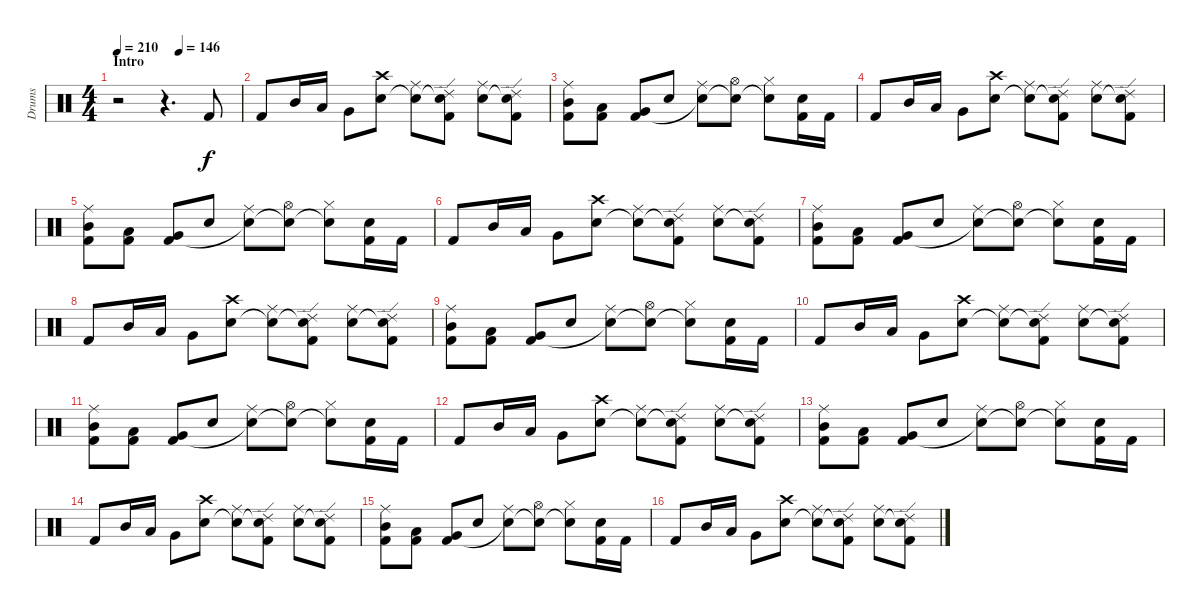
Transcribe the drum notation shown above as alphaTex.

\track ("Drums" "Drums") {instrument percussion}
\staff {score}
\articulation defaults
\ts (4 4)
\section ("" "Intro")
\tempo 210
\tempo (146 0.5)
\tempo 210
\clef neutral
\ks c
r.2{dy f} r.4{d} "Kick (hit) 2".8 |
"Kick (hit) 2".8 "Mid Tom (hit)".16 "Low Tom (hit)".16 "Very Low Tom (hit)".8 ("Crash high (hit)" "Snare (hit) 2").8 ("Ride (middle)" "Snare (hit)"{t}).8 ("Ride (edge) 2" "Snare (hit)"{t} "Kick (hit) 2").8 ("Ride (middle)" "Snare (hit) 2").8 ("Ride (edge) 2" "Snare (hit)"{t} "Kick (hit) 2").8 |
("Ride (middle)" "Mid Tom (hit)" "Kick (hit) 2").8 ("Low Tom (hit)" "Kick (hit) 2").8 ("Very Low Tom (hit)" "Kick (hit) 2").8 "Snare (hit) 2".8 ("Ride (middle)" "Snare (hit)"{t}).8 ("Hi-Hat (open)" "Snare (hit)"{t}).8 ("Hi-Hat (closed)" "Snare (hit)"{t}).8 ("Snare (hit) 2" "Kick (hit) 2").16 "Kick (hit) 2".16 |
"Kick (hit) 2".8 "Mid Tom (hit)".16 "Low Tom (hit)".16 "Very Low Tom (hit)".8 ("Crash high (hit)" "Snare (hit) 2").8 ("Ride (middle)" "Snare (hit)"{t}).8 ("Ride (edge) 2" "Snare (hit)"{t} "Kick (hit) 2").8 ("Ride (middle)" "Snare (hit) 2").8 ("Ride (edge) 2" "Snare (hit)"{t} "Kick (hit) 2").8 |
("Ride (middle)" "Mid Tom (hit)" "Kick (hit) 2").8 ("Low Tom (hit)" "Kick (hit) 2").8 ("Very Low Tom (hit)" "Kick (hit) 2").8 "Snare (hit) 2".8 ("Ride (middle)" "Snare (hit)"{t}).8 ("Hi-Hat (open)" "Snare (hit)"{t}).8 ("Hi-Hat (closed)" "Snare (hit)"{t}).8 ("Snare (hit) 2" "Kick (hit) 2").16 "Kick (hit) 2".16 |
"Kick (hit) 2".8 "Mid Tom (hit)".16 "Low Tom (hit)".16 "Very Low Tom (hit)".8 ("Crash high (hit)" "Snare (hit) 2").8 ("Ride (middle)" "Snare (hit)"{t}).8 ("Ride (edge) 2" "Snare (hit)"{t} "Kick (hit) 2").8 ("Ride (middle)" "Snare (hit) 2").8 ("Ride (edge) 2" "Snare (hit)"{t} "Kick (hit) 2").8 |
("Ride (middle)" "Mid Tom (hit)" "Kick (hit) 2").8 ("Low Tom (hit)" "Kick (hit) 2").8 ("Very Low Tom (hit)" "Kick (hit) 2").8 "Snare (hit) 2".8 ("Ride (middle)" "Snare (hit)"{t}).8 ("Hi-Hat (open)" "Snare (hit)"{t}).8 ("Hi-Hat (closed)" "Snare (hit)"{t}).8 ("Snare (hit) 2" "Kick (hit) 2").16 "Kick (hit) 2".16 |
"Kick (hit) 2".8 "Mid Tom (hit)".16 "Low Tom (hit)".16 "Very Low Tom (hit)".8 ("Crash high (hit)" "Snare (hit) 2").8 ("Ride (middle)" "Snare (hit)"{t}).8 ("Ride (edge) 2" "Snare (hit)"{t} "Kick (hit) 2").8 ("Ride (middle)" "Snare (hit) 2").8 ("Ride (edge) 2" "Snare (hit)"{t} "Kick (hit) 2").8 |
("Ride (middle)" "Mid Tom (hit)" "Kick (hit) 2").8 ("Low Tom (hit)" "Kick (hit) 2").8 ("Very Low Tom (hit)" "Kick (hit) 2").8 "Snare (hit) 2".8 ("Ride (middle)" "Snare (hit)"{t}).8 ("Hi-Hat (open)" "Snare (hit)"{t}).8 ("Hi-Hat (closed)" "Snare (hit)"{t}).8 ("Snare (hit) 2" "Kick (hit) 2").16 "Kick (hit) 2".16 |
"Kick (hit) 2".8 "Mid Tom (hit)".16 "Low Tom (hit)".16 "Very Low Tom (hit)".8 ("Crash high (hit)" "Snare (hit) 2").8 ("Ride (middle)" "Snare (hit)"{t}).8 ("Ride (edge) 2" "Snare (hit)"{t} "Kick (hit) 2").8 ("Ride (middle)" "Snare (hit) 2").8 ("Ride (edge) 2" "Snare (hit)"{t} "Kick (hit) 2").8 |
("Ride (middle)" "Mid Tom (hit)" "Kick (hit) 2").8 ("Low Tom (hit)" "Kick (hit) 2").8 ("Very Low Tom (hit)" "Kick (hit) 2").8 "Snare (hit) 2".8 ("Ride (middle)" "Snare (hit)"{t}).8 ("Hi-Hat (open)" "Snare (hit)"{t}).8 ("Hi-Hat (closed)" "Snare (hit)"{t}).8 ("Snare (hit) 2" "Kick (hit) 2").16 "Kick (hit) 2".16 |
"Kick (hit) 2".8 "Mid Tom (hit)".16 "Low Tom (hit)".16 "Very Low Tom (hit)".8 ("Crash high (hit)" "Snare (hit) 2").8 ("Ride (middle)" "Snare (hit)"{t}).8 ("Ride (edge) 2" "Snare (hit)"{t} "Kick (hit) 2").8 ("Ride (middle)" "Snare (hit) 2").8 ("Ride (edge) 2" "Snare (hit)"{t} "Kick (hit) 2").8 |
("Ride (middle)" "Mid Tom (hit)" "Kick (hit) 2").8 ("Low Tom (hit)" "Kick (hit) 2").8 ("Very Low Tom (hit)" "Kick (hit) 2").8 "Snare (hit) 2".8 ("Ride (middle)" "Snare (hit)"{t}).8 ("Hi-Hat (open)" "Snare (hit)"{t}).8 ("Hi-Hat (closed)" "Snare (hit)"{t}).8 ("Snare (hit) 2" "Kick (hit) 2").16 "Kick (hit) 2".16 |
"Kick (hit) 2".8 "Mid Tom (hit)".16 "Low Tom (hit)".16 "Very Low Tom (hit)".8 ("Crash high (hit)" "Snare (hit) 2").8 ("Ride (middle)" "Snare (hit)"{t}).8 ("Ride (edge) 2" "Snare (hit)"{t} "Kick (hit) 2").8 ("Ride (middle)" "Snare (hit) 2").8 ("Ride (edge) 2" "Snare (hit)"{t} "Kick (hit) 2").8 |
("Ride (middle)" "Mid Tom (hit)" "Kick (hit) 2").8 ("Low Tom (hit)" "Kick (hit) 2").8 ("Very Low Tom (hit)" "Kick (hit) 2").8 "Snare (hit) 2".8 ("Ride (middle)" "Snare (hit)"{t}).8 ("Hi-Hat (open)" "Snare (hit)"{t}).8 ("Hi-Hat (closed)" "Snare (hit)"{t}).8 ("Snare (hit) 2" "Kick (hit) 2").16 "Kick (hit) 2".16 |
"Kick (hit) 2".8 "Mid Tom (hit)".16 "Low Tom (hit)".16 "Very Low Tom (hit)".8 ("Crash high (hit)" "Snare (hit) 2").8 ("Ride (middle)" "Snare (hit)"{t}).8 ("Ride (edge) 2" "Snare (hit)"{t} "Kick (hit) 2").8 ("Ride (middle)" "Snare (hit) 2").8 ("Ride (edge) 2" "Snare (hit)"{t} "Kick (hit) 2").8
